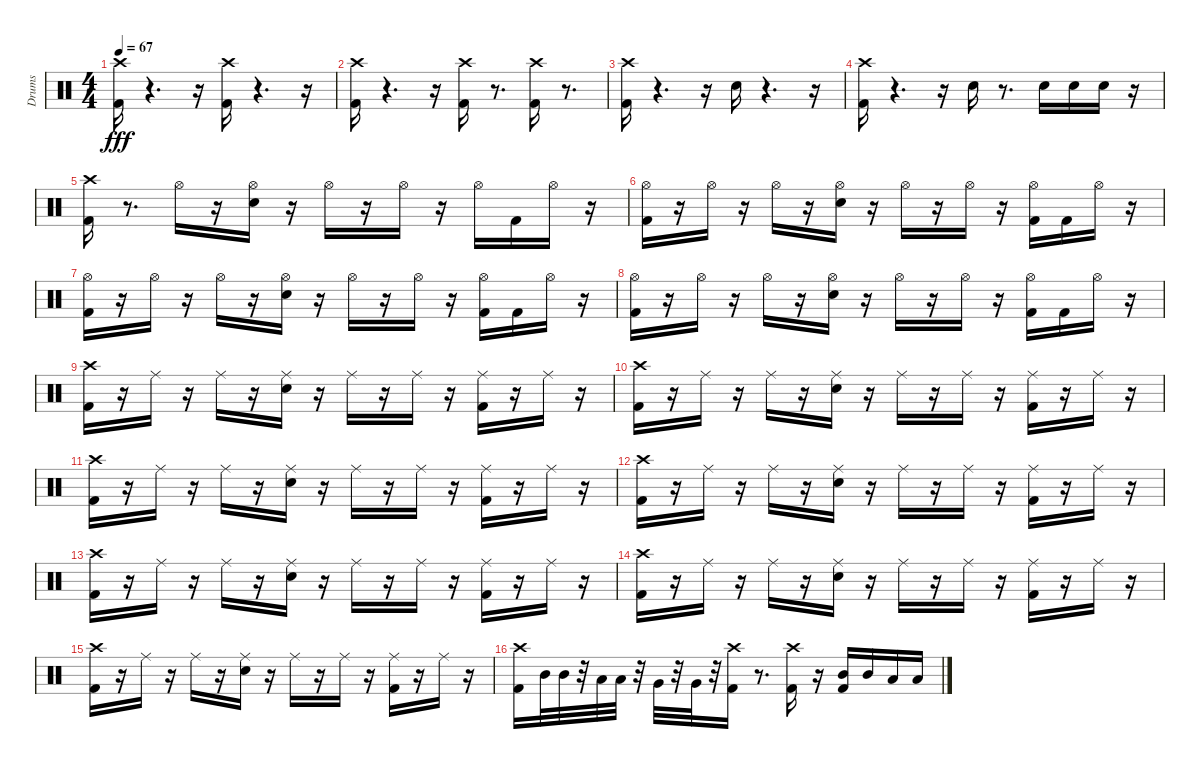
\track ("Drums" "Drums") {instrument percussion}
\staff {score}
\articulation defaults
\ts (4 4)
\tempo 67
\clef neutral
\ks c
("Crash high (hit)" "Kick (hit) 2").16{dy fff} r.4{d} r.16 ("Crash high (hit)" "Kick (hit) 2").16 r.4{d} r.16 |
("Crash high (hit)" "Kick (hit) 2").16 r.4{d} r.16 ("Crash high (hit)" "Kick (hit) 2").16 r.8{d} ("Crash high (hit)" "Kick (hit) 2").16 r.8{d} |
("Crash high (hit)" "Kick (hit) 2").16 r.4{d} r.16 "Electric Snare (hit)".16 r.4{d} r.16 |
("Crash high (hit)" "Kick (hit) 2").16 r.4{d} r.16 "Electric Snare (hit)".16 r.8{d} "Electric Snare (hit)".16 "Electric Snare (hit)".16 "Electric Snare (hit)".16 r.16 |
("Kick (hit) 2" "Crash high (hit)").16 r.8{d} "Hi-Hat (open)".16 r.16 ("Electric Snare (hit)" "Hi-Hat (open)").16 r.16 "Hi-Hat (open)".16 r.16 "Hi-Hat (open)".16 r.16 "Hi-Hat (open)".16 "Kick (hit) 2".16 "Hi-Hat (open)".16 r.16 |
("Hi-Hat (open)" "Kick (hit) 2").16 r.16 "Hi-Hat (open)".16 r.16 "Hi-Hat (open)".16 r.16 ("Hi-Hat (open)" "Electric Snare (hit)").16 r.16 "Hi-Hat (open)".16 r.16 "Hi-Hat (open)".16 r.16 ("Kick (hit) 2" "Hi-Hat (open)").16 "Kick (hit) 2".16 "Hi-Hat (open)".16 r.16 |
("Kick (hit) 2" "Hi-Hat (open)").16 r.16 "Hi-Hat (open)".16 r.16 "Hi-Hat (open)".16 r.16 ("Electric Snare (hit)" "Hi-Hat (open)").16 r.16 "Hi-Hat (open)".16 r.16 "Hi-Hat (open)".16 r.16 ("Kick (hit) 2" "Hi-Hat (open)").16 "Kick (hit) 2".16 "Hi-Hat (open)".16 r.16 |
("Hi-Hat (open)" "Kick (hit) 2").16 r.16 "Hi-Hat (open)".16 r.16 "Hi-Hat (open)".16 r.16 ("Hi-Hat (open)" "Electric Snare (hit)").16 r.16 "Hi-Hat (open)".16 r.16 "Hi-Hat (open)".16 r.16 ("Hi-Hat (open)" "Kick (hit) 2").16 "Kick (hit) 2".16 "Hi-Hat (open)".16 r.16 |
("Crash high (hit)" "Kick (hit) 2").16 r.16 "Ride (middle)".16 r.16 "Ride (middle)".16 r.16 ("Electric Snare (hit)" "Ride (middle)").16 r.16 "Ride (middle)".16 r.16 "Ride (middle)".16 r.16 ("Kick (hit) 2" "Ride (middle)").16 r.16 "Ride (middle)".16 r.16 |
("Kick (hit) 2" "Crash high (hit)").16 r.16 "Ride (middle)".16 r.16 "Ride (middle)".16 r.16 ("Ride (middle)" "Electric Snare (hit)").16 r.16 "Ride (middle)".16 r.16 "Ride (middle)".16 r.16 ("Ride (middle)" "Kick (hit) 2").16 r.16 "Ride (middle)".16 r.16 |
("Crash high (hit)" "Kick (hit) 2").16 r.16 "Ride (middle)".16 r.16 "Ride (middle)".16 r.16 ("Electric Snare (hit)" "Ride (middle)").16 r.16 "Ride (middle)".16 r.16 "Ride (middle)".16 r.16 ("Kick (hit) 2" "Ride (middle)").16 r.16 "Ride (middle)".16 r.16 |
("Crash high (hit)" "Kick (hit) 2").16 r.16 "Ride (middle)".16 r.16 "Ride (middle)".16 r.16 ("Electric Snare (hit)" "Ride (middle)").16 r.16 "Ride (middle)".16 r.16 "Ride (middle)".16 r.16 ("Kick (hit) 2" "Ride (middle)").16 r.16 "Ride (middle)".16 r.16 |
("Kick (hit) 2" "Crash high (hit)").16 r.16 "Ride (middle)".16 r.16 "Ride (middle)".16 r.16 ("Ride (middle)" "Electric Snare (hit)").16 r.16 "Ride (middle)".16 r.16 "Ride (middle)".16 r.16 ("Ride (middle)" "Kick (hit) 2").16 r.16 "Ride (middle)".16 r.16 |
("Crash high (hit)" "Kick (hit) 2").16 r.16 "Ride (middle)".16 r.16 "Ride (middle)".16 r.16 ("Electric Snare (hit)" "Ride (middle)").16 r.16 "Ride (middle)".16 r.16 "Ride (middle)".16 r.16 ("Kick (hit) 2" "Ride (middle)").16 r.16 "Ride (middle)".16 r.16 |
("Kick (hit) 2" "Crash high (hit)").16 r.16 "Ride (middle)".16 r.16 "Ride (middle)".16 r.16 ("Ride (middle)" "Electric Snare (hit)").16 r.16 "Ride (middle)".16 r.16 "Ride (middle)".16 r.16 ("Ride (middle)" "Kick (hit) 2").16 r.16 "Ride (middle)".16 r.16 |
("Kick (hit) 2" "Crash high (hit)").16 "Mid Tom (hit)".32 "Mid Tom (hit)".32 r.32 "Low Tom (hit)".32 "Low Tom (hit)".32 r.32 "Very Low Tom (hit)".32 r.32 "Very Low Tom (hit)".32 r.32 ("Crash high (hit)" "Kick (hit) 2").16 r.8{d} ("Crash high (hit)" "Kick (hit) 2").16 r.16 ("Mid Tom (hit)" "Kick (hit) 2").16 "Mid Tom (hit)".16 "Low Tom (hit)".16 "Low Tom (hit)".16
